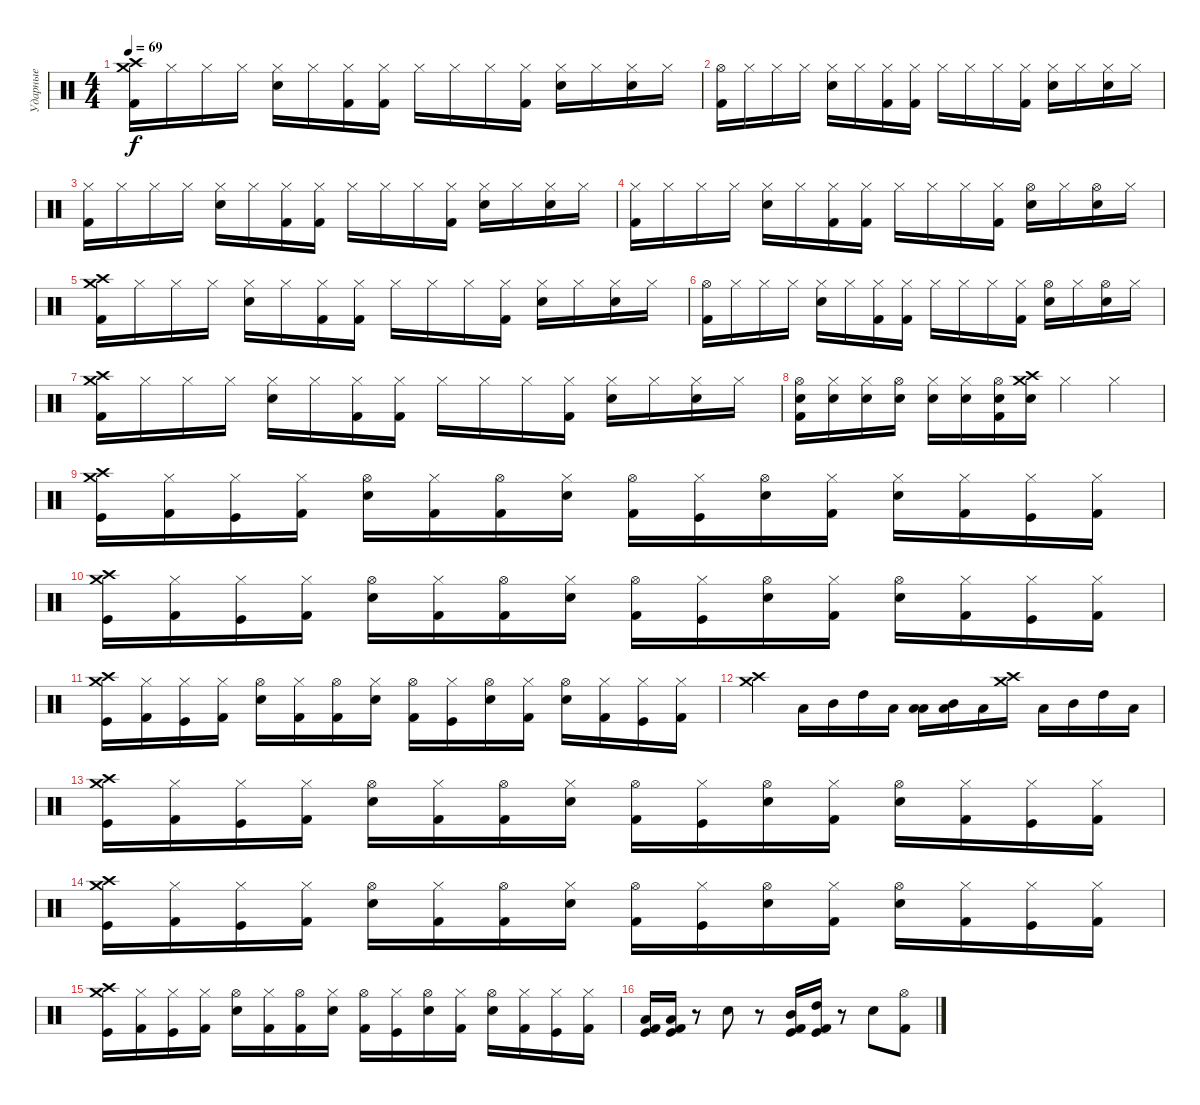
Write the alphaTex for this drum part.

\track ("Ударные" "Ударные") {instrument percussion}
\staff {score}
\articulation defaults
\ts (4 4)
\tempo 69
\clef neutral
\ks c
("Crash high (hit)" "Crash medium (hit)" "Kick (hit) 2").16{dy f} "Hi-Hat (closed)".16 "Hi-Hat (closed)".16 "Hi-Hat (closed)".16 ("Hi-Hat (closed)" "Snare (hit) 2").16 "Hi-Hat (closed)".16 ("Hi-Hat (closed)" "Kick (hit) 2").16 ("Hi-Hat (closed)" "Kick (hit) 2").16 "Hi-Hat (closed)".16 "Hi-Hat (closed)".16 "Hi-Hat (closed)".16 ("Hi-Hat (closed)" "Kick (hit) 2").16 ("Hi-Hat (closed)" "Snare (hit) 2").16 "Hi-Hat (closed)".16 ("Hi-Hat (closed)" "Snare (hit) 2").16 "Hi-Hat (closed)".16 |
("Hi-Hat (open)" "Kick (hit) 2").16 "Hi-Hat (closed)".16 "Hi-Hat (closed)".16 "Hi-Hat (closed)".16 ("Hi-Hat (closed)" "Snare (hit) 2").16 "Hi-Hat (closed)".16 ("Hi-Hat (closed)" "Kick (hit) 2").16 ("Hi-Hat (closed)" "Kick (hit) 2").16 "Hi-Hat (closed)".16 "Hi-Hat (closed)".16 "Hi-Hat (closed)".16 ("Hi-Hat (closed)" "Kick (hit) 2").16 ("Hi-Hat (closed)" "Snare (hit) 2").16 "Hi-Hat (closed)".16 ("Hi-Hat (closed)" "Snare (hit) 2").16 "Hi-Hat (closed)".16 |
("Hi-Hat (closed)" "Kick (hit) 2").16 "Hi-Hat (closed)".16 "Hi-Hat (closed)".16 "Hi-Hat (closed)".16 ("Hi-Hat (closed)" "Snare (hit) 2").16 "Hi-Hat (closed)".16 ("Hi-Hat (closed)" "Kick (hit) 2").16 ("Hi-Hat (closed)" "Kick (hit) 2").16 "Hi-Hat (closed)".16 "Hi-Hat (closed)".16 "Hi-Hat (closed)".16 ("Hi-Hat (closed)" "Kick (hit) 2").16 ("Hi-Hat (closed)" "Snare (hit) 2").16 "Hi-Hat (closed)".16 ("Hi-Hat (closed)" "Snare (hit) 2").16 "Hi-Hat (closed)".16 |
("Hi-Hat (closed)" "Kick (hit) 2").16 "Hi-Hat (closed)".16 "Hi-Hat (closed)".16 "Hi-Hat (closed)".16 ("Hi-Hat (closed)" "Snare (hit) 2").16 "Hi-Hat (closed)".16 ("Hi-Hat (closed)" "Kick (hit) 2").16 ("Hi-Hat (closed)" "Kick (hit) 2").16 "Hi-Hat (closed)".16 "Hi-Hat (closed)".16 "Hi-Hat (closed)".16 ("Hi-Hat (closed)" "Kick (hit) 2").16 ("Hi-Hat (open)" "Snare (hit) 2").16 "Hi-Hat (closed)".16 ("Hi-Hat (open)" "Snare (hit) 2").16 "Hi-Hat (closed)".16 |
("Crash high (hit)" "Crash medium (hit)" "Kick (hit) 2").16 "Hi-Hat (closed)".16 "Hi-Hat (closed)".16 "Hi-Hat (closed)".16 ("Hi-Hat (closed)" "Snare (hit) 2").16 "Hi-Hat (closed)".16 ("Hi-Hat (closed)" "Kick (hit) 2").16 ("Hi-Hat (closed)" "Kick (hit) 2").16 "Hi-Hat (closed)".16 "Hi-Hat (closed)".16 "Hi-Hat (closed)".16 ("Hi-Hat (closed)" "Kick (hit) 2").16 ("Hi-Hat (closed)" "Snare (hit) 2").16 "Hi-Hat (closed)".16 ("Hi-Hat (closed)" "Snare (hit) 2").16 "Hi-Hat (closed)".16 |
("Hi-Hat (open)" "Kick (hit) 2").16 "Hi-Hat (closed)".16 "Hi-Hat (closed)".16 "Hi-Hat (closed)".16 ("Hi-Hat (closed)" "Snare (hit) 2").16 "Hi-Hat (closed)".16 ("Hi-Hat (closed)" "Kick (hit) 2").16 ("Hi-Hat (closed)" "Kick (hit) 2").16 "Hi-Hat (closed)".16 "Hi-Hat (closed)".16 "Hi-Hat (closed)".16 ("Hi-Hat (closed)" "Kick (hit) 2").16 ("Hi-Hat (open)" "Snare (hit) 2").16 "Hi-Hat (closed)".16 ("Hi-Hat (open)" "Snare (hit) 2").16 "Hi-Hat (closed)".16 |
("Crash high (hit)" "Crash medium (hit)" "Kick (hit) 2").16 "Hi-Hat (closed)".16 "Hi-Hat (closed)".16 "Hi-Hat (closed)".16 ("Hi-Hat (closed)" "Snare (hit) 2").16 "Hi-Hat (closed)".16 ("Hi-Hat (closed)" "Kick (hit) 2").16 ("Hi-Hat (closed)" "Kick (hit) 2").16 "Hi-Hat (closed)".16 "Hi-Hat (closed)".16 "Hi-Hat (closed)".16 ("Hi-Hat (closed)" "Kick (hit) 2").16 ("Hi-Hat (closed)" "Snare (hit) 2").16 "Hi-Hat (closed)".16 ("Hi-Hat (closed)" "Snare (hit) 2").16 "Hi-Hat (closed)".16 |
("Hi-Hat (open)" "Snare (hit) 2" "Kick (hit) 2").16 ("Hi-Hat (closed)" "Snare (hit) 2").16 ("Hi-Hat (closed)" "Snare (hit) 2").16 ("Hi-Hat (open)" "Snare (hit) 2").16 ("Hi-Hat (closed)" "Snare (hit) 2").16 ("Hi-Hat (closed)" "Snare (hit) 2").16 ("Hi-Hat (open)" "Snare (hit) 2" "Kick (hit) 2").16 ("Crash high (hit)" "Crash medium (hit)" "Snare (hit) 2").16 "Hi-Hat (closed)".4 "Hi-Hat (closed)".4 |
("Crash high (hit)" "Crash medium (hit)" "Kick (hit)").16 ("Hi-Hat (closed)" "Kick (hit) 2").16 ("Hi-Hat (closed)" "Kick (hit)").16 ("Hi-Hat (closed)" "Kick (hit) 2").16 ("Hi-Hat (open)" "Snare (hit) 2").16 ("Hi-Hat (closed)" "Kick (hit) 2").16 ("Hi-Hat (open)" "Kick (hit) 2").16 ("Hi-Hat (closed)" "Snare (hit) 2").16 ("Hi-Hat (open)" "Kick (hit) 2").16 ("Hi-Hat (closed)" "Kick (hit)").16 ("Hi-Hat (open)" "Snare (hit) 2").16 ("Hi-Hat (closed)" "Kick (hit) 2").16 ("Hi-Hat (closed)" "Snare (hit) 2").16 ("Hi-Hat (closed)" "Kick (hit) 2").16 ("Hi-Hat (closed)" "Kick (hit)").16 ("Hi-Hat (closed)" "Kick (hit) 2").16 |
("Crash high (hit)" "Crash medium (hit)" "Kick (hit)").16 ("Hi-Hat (closed)" "Kick (hit) 2").16 ("Hi-Hat (closed)" "Kick (hit)").16 ("Hi-Hat (closed)" "Kick (hit) 2").16 ("Hi-Hat (open)" "Snare (hit) 2").16 ("Hi-Hat (closed)" "Kick (hit) 2").16 ("Hi-Hat (open)" "Kick (hit) 2").16 ("Hi-Hat (closed)" "Snare (hit) 2").16 ("Hi-Hat (open)" "Kick (hit) 2").16 ("Hi-Hat (closed)" "Kick (hit)").16 ("Hi-Hat (open)" "Snare (hit) 2").16 ("Hi-Hat (closed)" "Kick (hit) 2").16 ("Hi-Hat (open)" "Snare (hit) 2").16 ("Hi-Hat (closed)" "Kick (hit) 2").16 ("Hi-Hat (closed)" "Kick (hit)").16 ("Hi-Hat (closed)" "Kick (hit) 2").16 |
("Crash high (hit)" "Crash medium (hit)" "Kick (hit)").16 ("Hi-Hat (closed)" "Kick (hit) 2").16 ("Hi-Hat (closed)" "Kick (hit)").16 ("Hi-Hat (closed)" "Kick (hit) 2").16 ("Hi-Hat (open)" "Snare (hit) 2").16 ("Hi-Hat (closed)" "Kick (hit) 2").16 ("Hi-Hat (open)" "Kick (hit) 2").16 ("Hi-Hat (closed)" "Snare (hit) 2").16 ("Hi-Hat (open)" "Kick (hit) 2").16 ("Hi-Hat (closed)" "Kick (hit)").16 ("Hi-Hat (open)" "Snare (hit) 2").16 ("Hi-Hat (closed)" "Kick (hit) 2").16 ("Hi-Hat (open)" "Snare (hit) 2").16 ("Hi-Hat (closed)" "Kick (hit) 2").16 ("Hi-Hat (closed)" "Kick (hit)").16 ("Hi-Hat (closed)" "Kick (hit) 2").16 |
("Crash high (hit)" "Crash medium (hit)").4 "Low Floor Tom (hit)".16 "Mid Tom (hit)".16 "High Tom (hit)".16 "Low Floor Tom (hit)".16 ("Low Tom (hit)" "Low Floor Tom (hit)").16 ("Low Tom (hit)" "Mid Tom (hit)").16 "Low Tom (hit)".16 ("Crash high (hit)" "Crash medium (hit)").16 "Low Floor Tom (hit)".16 "Mid Tom (hit)".16 "High Tom (hit)".16 "Low Tom (hit)".16 |
("Crash high (hit)" "Crash medium (hit)" "Kick (hit)").16 ("Hi-Hat (closed)" "Kick (hit) 2").16 ("Hi-Hat (closed)" "Kick (hit)").16 ("Hi-Hat (closed)" "Kick (hit) 2").16 ("Hi-Hat (open)" "Snare (hit) 2").16 ("Hi-Hat (closed)" "Kick (hit) 2").16 ("Hi-Hat (open)" "Kick (hit) 2").16 ("Hi-Hat (closed)" "Snare (hit) 2").16 ("Hi-Hat (open)" "Kick (hit) 2").16 ("Hi-Hat (closed)" "Kick (hit)").16 ("Hi-Hat (open)" "Snare (hit) 2").16 ("Hi-Hat (closed)" "Kick (hit) 2").16 ("Hi-Hat (open)" "Snare (hit) 2").16 ("Hi-Hat (closed)" "Kick (hit) 2").16 ("Hi-Hat (closed)" "Kick (hit)").16 ("Hi-Hat (closed)" "Kick (hit) 2").16 |
("Crash high (hit)" "Crash medium (hit)" "Kick (hit)").16 ("Hi-Hat (closed)" "Kick (hit) 2").16 ("Hi-Hat (closed)" "Kick (hit)").16 ("Hi-Hat (closed)" "Kick (hit) 2").16 ("Hi-Hat (open)" "Snare (hit) 2").16 ("Hi-Hat (closed)" "Kick (hit) 2").16 ("Hi-Hat (open)" "Kick (hit) 2").16 ("Hi-Hat (closed)" "Snare (hit) 2").16 ("Hi-Hat (open)" "Kick (hit) 2").16 ("Hi-Hat (closed)" "Kick (hit)").16 ("Hi-Hat (open)" "Snare (hit) 2").16 ("Hi-Hat (closed)" "Kick (hit) 2").16 ("Hi-Hat (open)" "Snare (hit) 2").16 ("Hi-Hat (closed)" "Kick (hit) 2").16 ("Hi-Hat (closed)" "Kick (hit)").16 ("Hi-Hat (closed)" "Kick (hit) 2").16 |
("Crash high (hit)" "Crash medium (hit)" "Kick (hit)").16 ("Hi-Hat (closed)" "Kick (hit) 2").16 ("Hi-Hat (closed)" "Kick (hit)").16 ("Hi-Hat (closed)" "Kick (hit) 2").16 ("Hi-Hat (open)" "Snare (hit) 2").16 ("Hi-Hat (closed)" "Kick (hit) 2").16 ("Hi-Hat (open)" "Kick (hit) 2").16 ("Hi-Hat (closed)" "Snare (hit) 2").16 ("Hi-Hat (open)" "Kick (hit) 2").16 ("Hi-Hat (closed)" "Kick (hit)").16 ("Hi-Hat (open)" "Snare (hit) 2").16 ("Hi-Hat (closed)" "Kick (hit) 2").16 ("Hi-Hat (open)" "Snare (hit) 2").16 ("Hi-Hat (closed)" "Kick (hit) 2").16 ("Hi-Hat (closed)" "Kick (hit)").16 ("Hi-Hat (closed)" "Kick (hit) 2").16 |
("Low Floor Tom (hit)" "Kick (hit)" "Kick (hit) 2").16 ("Low Tom (hit)" "Kick (hit)" "Kick (hit) 2").16 r.8 "Snare (hit) 2".8 r.8 ("Mid Tom (hit)" "Kick (hit)" "Kick (hit) 2").16 ("High Tom (hit)" "Kick (hit)" "Kick (hit) 2").16 r.8 "Snare (hit) 2".8 ("Hi-Hat (open)" "Kick (hit) 2").8
